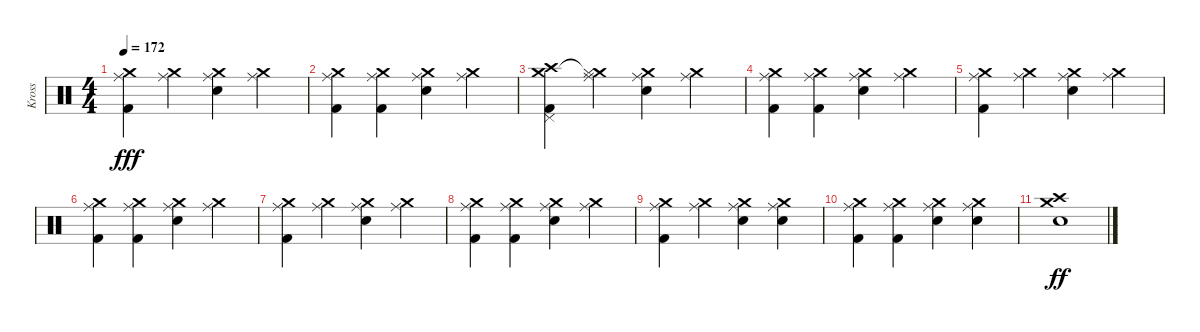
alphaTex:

\track ("Kross" "Kross") {instrument percussion}
\staff {score}
\articulation defaults
\ts (4 4)
\tempo 172
\clef neutral
\ks c
("Crash medium (hit)" "Ride (middle)" "Kick (hit) 2").4{dy fff} ("Crash medium (hit)" "Ride (middle)").4 ("Crash medium (hit)" "Ride (middle)" "Snare (hit) 2").4 ("Crash medium (hit)" "Ride (middle)").4 |
("Crash medium (hit)" "Ride (middle)" "Kick (hit) 2").4 ("Crash medium (hit)" "Ride (middle)" "Kick (hit) 2").4 ("Crash medium (hit)" "Ride (middle)" "Snare (hit) 2").4 ("Crash medium (hit)" "Ride (middle)").4 |
("Crash high (hit)" "Crash medium (hit)" "Pedal Hi-Hat (hit)" "Kick (hit) 2").4 ("Crash medium (hit)" "Hi-Hat (closed)"{t} "Ride (middle)").4 ("Crash medium (hit)" "Ride (middle)" "Snare (hit) 2").4 ("Crash medium (hit)" "Ride (middle)").4 |
("Crash medium (hit)" "Ride (middle)" "Kick (hit) 2").4 ("Crash medium (hit)" "Ride (middle)" "Kick (hit) 2").4 ("Crash medium (hit)" "Ride (middle)" "Snare (hit) 2").4 ("Crash medium (hit)" "Ride (middle)").4 |
("Crash medium (hit)" "Ride (middle)" "Kick (hit) 2").4 ("Crash medium (hit)" "Ride (middle)").4 ("Crash medium (hit)" "Ride (middle)" "Snare (hit) 2").4 ("Crash medium (hit)" "Ride (middle)").4 |
("Crash medium (hit)" "Ride (middle)" "Kick (hit) 2").4 ("Crash medium (hit)" "Ride (middle)" "Kick (hit) 2").4 ("Crash medium (hit)" "Ride (middle)" "Snare (hit) 2").4 ("Crash medium (hit)" "Ride (middle)").4 |
("Crash medium (hit)" "Ride (middle)" "Kick (hit) 2").4 ("Crash medium (hit)" "Ride (middle)").4 ("Crash medium (hit)" "Ride (middle)" "Snare (hit) 2").4 ("Crash medium (hit)" "Ride (middle)").4 |
("Crash medium (hit)" "Ride (middle)" "Kick (hit) 2").4 ("Crash medium (hit)" "Ride (middle)" "Kick (hit) 2").4 ("Crash medium (hit)" "Ride (middle)" "Snare (hit) 2").4 ("Crash medium (hit)" "Ride (middle)").4 |
("Crash medium (hit)" "Ride (middle)" "Kick (hit) 2").4 ("Crash medium (hit)" "Ride (middle)").4 ("Crash medium (hit)" "Ride (middle)" "Snare (hit) 2").4 ("Crash medium (hit)" "Ride (middle)" "Snare (hit) 2").4 |
("Crash medium (hit)" "Ride (middle)" "Kick (hit) 2").4 ("Crash medium (hit)" "Ride (middle)" "Kick (hit) 2").4 ("Crash medium (hit)" "Ride (middle)" "Snare (hit) 2").4 ("Crash medium (hit)" "Ride (middle)" "Snare (hit) 2").4 |
("Crash high (hit)" "Crash medium (hit)" "Snare (hit) 2").1{dy ff}
